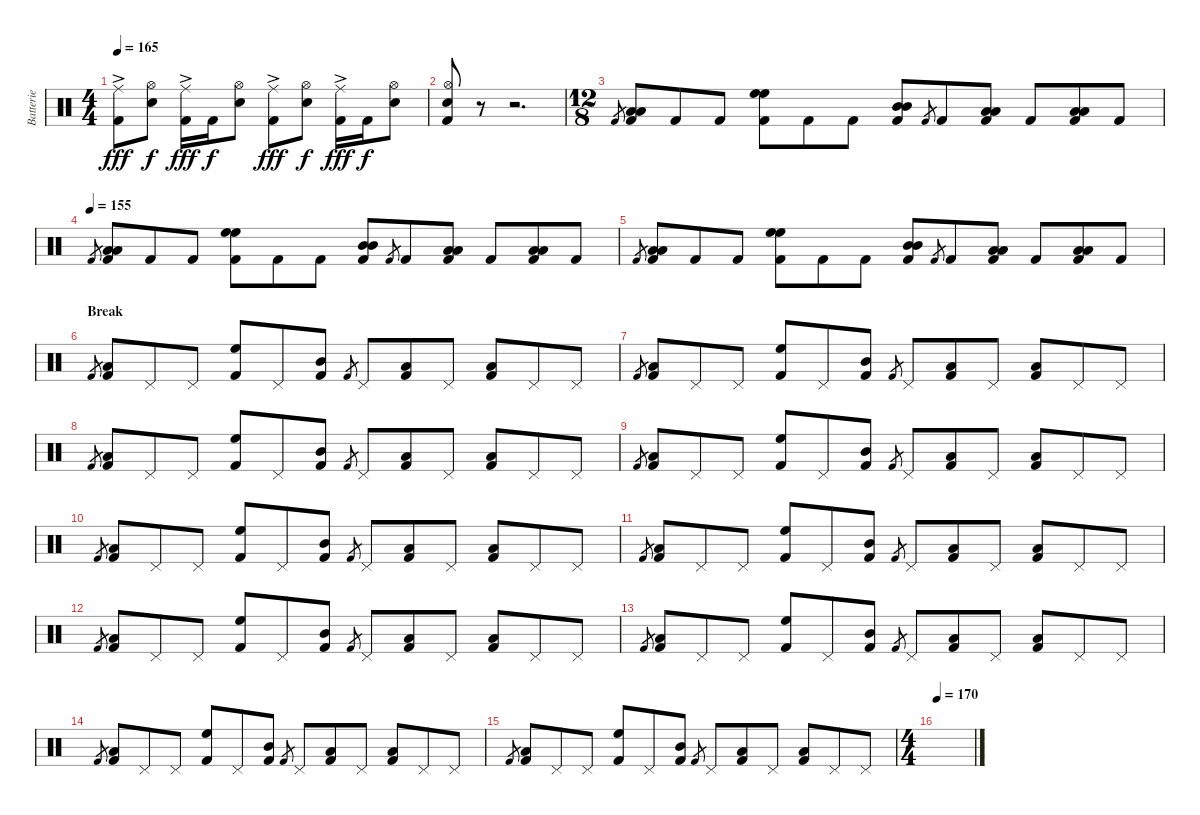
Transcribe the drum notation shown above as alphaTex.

\track ("Batterie" "Batterie") {instrument percussion}
\staff {score}
\articulation defaults
\ts (4 4)
\tempo 165
\clef neutral
\ks c
("Ride (middle)"{ac} "Kick (hit) 2").8{dy fff} ("Hi-Hat (open)" "Snare (hit) 2").8{dy f} ("Ride (middle)"{ac} "Kick (hit) 2").16{dy fff} "Kick (hit) 2".16{dy f} ("Hi-Hat (open)" "Snare (hit) 2").8 ("Ride (middle)"{ac} "Kick (hit) 2").8{dy fff} ("Hi-Hat (open)" "Snare (hit) 2").8{dy f} ("Ride (middle)"{ac} "Kick (hit) 2").16{dy fff} "Kick (hit) 2".16{dy f} ("Hi-Hat (open)" "Snare (hit) 2").8 |
("Hi-Hat (open)" "Snare (hit) 2" "Kick (hit) 2").8 r.8 r.2{d} |
\ts (12 8)
"Kick (hit) 2".8{gr} ("Low Tom (hit)" "Low Tom (hit)" "Kick (hit) 2").8 "Kick (hit) 2".8 "Kick (hit) 2".8 ("High Floor Tom (hit)" "High Floor Tom (hit)" "Kick (hit) 2").8 "Kick (hit) 2".8 "Kick (hit) 2".8 ("Mid Tom (hit)" "Mid Tom (hit)" "Kick (hit) 2").8 "Kick (hit) 2".8{gr} "Kick (hit) 2".8 ("Low Floor Tom (hit)" "Low Floor Tom (hit)" "Kick (hit) 2").8 "Kick (hit) 2".8 ("Low Floor Tom (hit)" "Low Floor Tom (hit)" "Kick (hit) 2").8 "Kick (hit) 2".8 |
\tempo (155)
"Kick (hit) 2".8{gr} ("Low Tom (hit)" "Low Tom (hit)" "Kick (hit) 2").8 "Kick (hit) 2".8 "Kick (hit) 2".8 ("High Floor Tom (hit)" "High Floor Tom (hit)" "Kick (hit) 2").8 "Kick (hit) 2".8 "Kick (hit) 2".8 ("Mid Tom (hit)" "Mid Tom (hit)" "Kick (hit) 2").8 "Kick (hit) 2".8{gr} "Kick (hit) 2".8 ("Low Floor Tom (hit)" "Low Floor Tom (hit)" "Kick (hit) 2").8 "Kick (hit) 2".8 ("Low Floor Tom (hit)" "Low Floor Tom (hit)" "Kick (hit) 2").8 "Kick (hit) 2".8 |
"Kick (hit) 2".8{gr} ("Low Tom (hit)" "Low Tom (hit)" "Kick (hit) 2").8 "Kick (hit) 2".8 "Kick (hit) 2".8 ("High Floor Tom (hit)" "High Floor Tom (hit)" "Kick (hit) 2").8 "Kick (hit) 2".8 "Kick (hit) 2".8 ("Mid Tom (hit)" "Mid Tom (hit)" "Kick (hit) 2").8 "Kick (hit) 2".8{gr} "Kick (hit) 2".8 ("Low Floor Tom (hit)" "Low Floor Tom (hit)" "Kick (hit) 2").8 "Kick (hit) 2".8 ("Low Floor Tom (hit)" "Low Floor Tom (hit)" "Kick (hit) 2").8 "Kick (hit) 2".8 |
\section ("" "Break")
"Kick (hit) 2".8{gr} ("Low Tom (hit)" "Kick (hit) 2").8 "Pedal Hi-Hat (hit)".8 "Pedal Hi-Hat (hit)".8 ("High Floor Tom (hit)" "Kick (hit) 2").8 "Pedal Hi-Hat (hit)".8 ("Mid Tom (hit)" "Kick (hit) 2").8 "Kick (hit) 2".8{gr} "Pedal Hi-Hat (hit)".8 ("Low Floor Tom (hit)" "Kick (hit) 2").8 "Pedal Hi-Hat (hit)".8 ("Low Floor Tom (hit)" "Kick (hit) 2").8 "Pedal Hi-Hat (hit)".8 "Pedal Hi-Hat (hit)".8 |
"Kick (hit) 2".8{gr} ("Low Tom (hit)" "Kick (hit) 2").8 "Pedal Hi-Hat (hit)".8 "Pedal Hi-Hat (hit)".8 ("High Floor Tom (hit)" "Kick (hit) 2").8 "Pedal Hi-Hat (hit)".8 ("Mid Tom (hit)" "Kick (hit) 2").8 "Kick (hit) 2".8{gr} "Pedal Hi-Hat (hit)".8 ("Low Floor Tom (hit)" "Kick (hit) 2").8 "Pedal Hi-Hat (hit)".8 ("Low Floor Tom (hit)" "Kick (hit) 2").8 "Pedal Hi-Hat (hit)".8 "Pedal Hi-Hat (hit)".8 |
"Kick (hit) 2".8{gr} ("Low Tom (hit)" "Kick (hit) 2").8 "Pedal Hi-Hat (hit)".8 "Pedal Hi-Hat (hit)".8 ("High Floor Tom (hit)" "Kick (hit) 2").8 "Pedal Hi-Hat (hit)".8 ("Mid Tom (hit)" "Kick (hit) 2").8 "Kick (hit) 2".8{gr} "Pedal Hi-Hat (hit)".8 ("Low Floor Tom (hit)" "Kick (hit) 2").8 "Pedal Hi-Hat (hit)".8 ("Low Floor Tom (hit)" "Kick (hit) 2").8 "Pedal Hi-Hat (hit)".8 "Pedal Hi-Hat (hit)".8 |
"Kick (hit) 2".8{gr} ("Low Tom (hit)" "Kick (hit) 2").8 "Pedal Hi-Hat (hit)".8 "Pedal Hi-Hat (hit)".8 ("High Floor Tom (hit)" "Kick (hit) 2").8 "Pedal Hi-Hat (hit)".8 ("Mid Tom (hit)" "Kick (hit) 2").8 "Kick (hit) 2".8{gr} "Pedal Hi-Hat (hit)".8 ("Low Floor Tom (hit)" "Kick (hit) 2").8 "Pedal Hi-Hat (hit)".8 ("Low Floor Tom (hit)" "Kick (hit) 2").8 "Pedal Hi-Hat (hit)".8 "Pedal Hi-Hat (hit)".8 |
\section ("" "")
"Kick (hit) 2".8{gr} ("Low Tom (hit)" "Kick (hit) 2").8 "Pedal Hi-Hat (hit)".8 "Pedal Hi-Hat (hit)".8 ("High Floor Tom (hit)" "Kick (hit) 2").8 "Pedal Hi-Hat (hit)".8 ("Mid Tom (hit)" "Kick (hit) 2").8 "Kick (hit) 2".8{gr} "Pedal Hi-Hat (hit)".8 ("Low Floor Tom (hit)" "Kick (hit) 2").8 "Pedal Hi-Hat (hit)".8 ("Low Floor Tom (hit)" "Kick (hit) 2").8 "Pedal Hi-Hat (hit)".8 "Pedal Hi-Hat (hit)".8 |
"Kick (hit) 2".8{gr} ("Low Tom (hit)" "Kick (hit) 2").8 "Pedal Hi-Hat (hit)".8 "Pedal Hi-Hat (hit)".8 ("High Floor Tom (hit)" "Kick (hit) 2").8 "Pedal Hi-Hat (hit)".8 ("Mid Tom (hit)" "Kick (hit) 2").8 "Kick (hit) 2".8{gr} "Pedal Hi-Hat (hit)".8 ("Low Floor Tom (hit)" "Kick (hit) 2").8 "Pedal Hi-Hat (hit)".8 ("Low Floor Tom (hit)" "Kick (hit) 2").8 "Pedal Hi-Hat (hit)".8 "Pedal Hi-Hat (hit)".8 |
"Kick (hit) 2".8{gr} ("Low Tom (hit)" "Kick (hit) 2").8 "Pedal Hi-Hat (hit)".8 "Pedal Hi-Hat (hit)".8 ("High Floor Tom (hit)" "Kick (hit) 2").8 "Pedal Hi-Hat (hit)".8 ("Mid Tom (hit)" "Kick (hit) 2").8 "Kick (hit) 2".8{gr} "Pedal Hi-Hat (hit)".8 ("Low Floor Tom (hit)" "Kick (hit) 2").8 "Pedal Hi-Hat (hit)".8 ("Low Floor Tom (hit)" "Kick (hit) 2").8 "Pedal Hi-Hat (hit)".8 "Pedal Hi-Hat (hit)".8 |
"Kick (hit) 2".8{gr} ("Low Tom (hit)" "Kick (hit) 2").8 "Pedal Hi-Hat (hit)".8 "Pedal Hi-Hat (hit)".8 ("High Floor Tom (hit)" "Kick (hit) 2").8 "Pedal Hi-Hat (hit)".8 ("Mid Tom (hit)" "Kick (hit) 2").8 "Kick (hit) 2".8{gr} "Pedal Hi-Hat (hit)".8 ("Low Floor Tom (hit)" "Kick (hit) 2").8 "Pedal Hi-Hat (hit)".8 ("Low Floor Tom (hit)" "Kick (hit) 2").8 "Pedal Hi-Hat (hit)".8 "Pedal Hi-Hat (hit)".8 |
"Kick (hit) 2".8{gr} ("Low Tom (hit)" "Kick (hit) 2").8 "Pedal Hi-Hat (hit)".8 "Pedal Hi-Hat (hit)".8 ("High Floor Tom (hit)" "Kick (hit) 2").8 "Pedal Hi-Hat (hit)".8 ("Mid Tom (hit)" "Kick (hit) 2").8 "Kick (hit) 2".8{gr} "Pedal Hi-Hat (hit)".8 ("Low Floor Tom (hit)" "Kick (hit) 2").8 "Pedal Hi-Hat (hit)".8 ("Low Floor Tom (hit)" "Kick (hit) 2").8 "Pedal Hi-Hat (hit)".8 "Pedal Hi-Hat (hit)".8 |
"Kick (hit) 2".8{gr} ("Low Tom (hit)" "Kick (hit) 2").8 "Pedal Hi-Hat (hit)".8 "Pedal Hi-Hat (hit)".8 ("High Floor Tom (hit)" "Kick (hit) 2").8 "Pedal Hi-Hat (hit)".8 ("Mid Tom (hit)" "Kick (hit) 2").8 "Kick (hit) 2".8{gr} "Pedal Hi-Hat (hit)".8 ("Low Floor Tom (hit)" "Kick (hit) 2").8 "Pedal Hi-Hat (hit)".8 ("Low Floor Tom (hit)" "Kick (hit) 2").8 "Pedal Hi-Hat (hit)".8 "Pedal Hi-Hat (hit)".8 |
\ts (4 4)
\tempo 170
